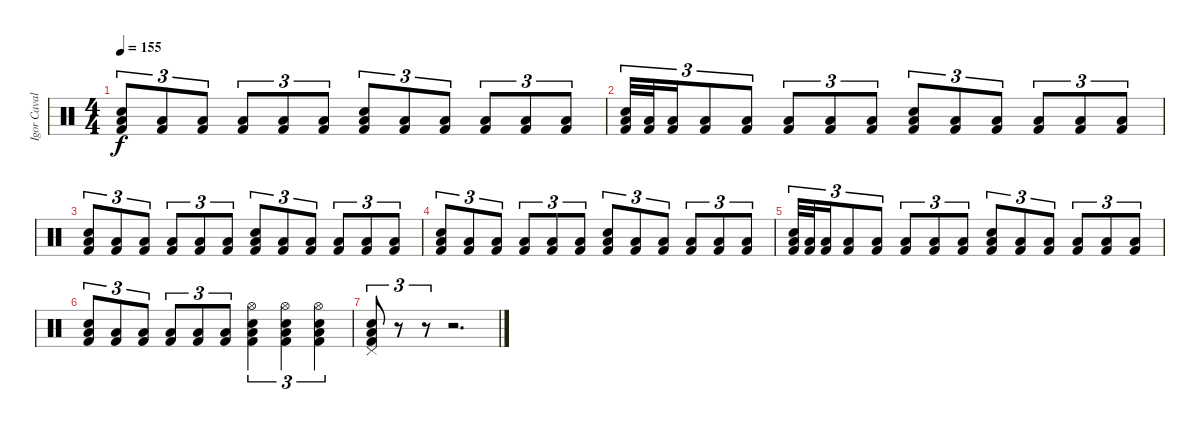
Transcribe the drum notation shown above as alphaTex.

\track ("Igor Cavalera - Drums" "Igor Caval") {instrument percussion}
\staff {score}
\articulation defaults
\ts (4 4)
\tempo 155
\clef neutral
\ks c
("Snare (hit) 2" "Low Floor Tom (hit)" "Kick (hit) 2").8{tu (3 2) dy f} ("Low Floor Tom (hit)" "Kick (hit) 2").8{tu (3 2)} ("Low Floor Tom (hit)" "Kick (hit) 2").8{tu (3 2)} ("Low Floor Tom (hit)" "Kick (hit) 2").8{tu (3 2)} ("Low Floor Tom (hit)" "Kick (hit) 2").8{tu (3 2)} ("Low Floor Tom (hit)" "Kick (hit) 2").8{tu (3 2)} ("Electric Snare (hit)" "Low Floor Tom (hit)" "Kick (hit) 2").8{tu (3 2)} ("Low Floor Tom (hit)" "Kick (hit) 2").8{tu (3 2)} ("Low Floor Tom (hit)" "Kick (hit) 2").8{tu (3 2)} ("Low Floor Tom (hit)" "Kick (hit) 2").8{tu (3 2)} ("Low Floor Tom (hit)" "Kick (hit) 2").8{tu (3 2)} ("Low Floor Tom (hit)" "Kick (hit) 2").8{tu (3 2)} |
("Snare (hit) 2" "Low Floor Tom (hit)" "Kick (hit) 2").32{tu (3 2)} ("Low Floor Tom (hit)" "Kick (hit) 2").32{tu (3 2)} ("Low Floor Tom (hit)" "Kick (hit) 2").16{tu (3 2)} ("Low Floor Tom (hit)" "Kick (hit) 2").8{tu (3 2)} ("Low Floor Tom (hit)" "Kick (hit) 2").8{tu (3 2)} ("Low Floor Tom (hit)" "Kick (hit) 2").8{tu (3 2)} ("Low Floor Tom (hit)" "Kick (hit) 2").8{tu (3 2)} ("Low Floor Tom (hit)" "Kick (hit) 2").8{tu (3 2)} ("Electric Snare (hit)" "Low Floor Tom (hit)" "Kick (hit) 2").8{tu (3 2)} ("Low Floor Tom (hit)" "Kick (hit) 2").8{tu (3 2)} ("Low Floor Tom (hit)" "Kick (hit) 2").8{tu (3 2)} ("Low Floor Tom (hit)" "Kick (hit) 2").8{tu (3 2)} ("Low Floor Tom (hit)" "Kick (hit) 2").8{tu (3 2)} ("Low Floor Tom (hit)" "Kick (hit) 2").8{tu (3 2)} |
("Snare (hit) 2" "Low Floor Tom (hit)" "Kick (hit) 2").8{tu (3 2)} ("Low Floor Tom (hit)" "Kick (hit) 2").8{tu (3 2)} ("Low Floor Tom (hit)" "Kick (hit) 2").8{tu (3 2)} ("Low Floor Tom (hit)" "Kick (hit) 2").8{tu (3 2)} ("Low Floor Tom (hit)" "Kick (hit) 2").8{tu (3 2)} ("Low Floor Tom (hit)" "Kick (hit) 2").8{tu (3 2)} ("Electric Snare (hit)" "Low Floor Tom (hit)" "Kick (hit) 2").8{tu (3 2)} ("Low Floor Tom (hit)" "Kick (hit) 2").8{tu (3 2)} ("Low Floor Tom (hit)" "Kick (hit) 2").8{tu (3 2)} ("Low Floor Tom (hit)" "Kick (hit) 2").8{tu (3 2)} ("Low Floor Tom (hit)" "Kick (hit) 2").8{tu (3 2)} ("Low Floor Tom (hit)" "Kick (hit) 2").8{tu (3 2)} |
("Snare (hit) 2" "Low Floor Tom (hit)" "Kick (hit) 2").8{tu (3 2)} ("Low Floor Tom (hit)" "Kick (hit) 2").8{tu (3 2)} ("Low Floor Tom (hit)" "Kick (hit) 2").8{tu (3 2)} ("Low Floor Tom (hit)" "Kick (hit) 2").8{tu (3 2)} ("Low Floor Tom (hit)" "Kick (hit) 2").8{tu (3 2)} ("Low Floor Tom (hit)" "Kick (hit) 2").8{tu (3 2)} ("Electric Snare (hit)" "Low Floor Tom (hit)" "Kick (hit) 2").8{tu (3 2)} ("Low Floor Tom (hit)" "Kick (hit) 2").8{tu (3 2)} ("Low Floor Tom (hit)" "Kick (hit) 2").8{tu (3 2)} ("Low Floor Tom (hit)" "Kick (hit) 2").8{tu (3 2)} ("Low Floor Tom (hit)" "Kick (hit) 2").8{tu (3 2)} ("Low Floor Tom (hit)" "Kick (hit) 2").8{tu (3 2)} |
("Snare (hit) 2" "Low Floor Tom (hit)" "Kick (hit) 2").32{tu (3 2)} ("Low Floor Tom (hit)" "Kick (hit) 2").32{tu (3 2)} ("Low Floor Tom (hit)" "Kick (hit) 2").16{tu (3 2)} ("Low Floor Tom (hit)" "Kick (hit) 2").8{tu (3 2)} ("Low Floor Tom (hit)" "Kick (hit) 2").8{tu (3 2)} ("Low Floor Tom (hit)" "Kick (hit) 2").8{tu (3 2)} ("Low Floor Tom (hit)" "Kick (hit) 2").8{tu (3 2)} ("Low Floor Tom (hit)" "Kick (hit) 2").8{tu (3 2)} ("Electric Snare (hit)" "Low Floor Tom (hit)" "Kick (hit) 2").8{tu (3 2)} ("Low Floor Tom (hit)" "Kick (hit) 2").8{tu (3 2)} ("Low Floor Tom (hit)" "Kick (hit) 2").8{tu (3 2)} ("Low Floor Tom (hit)" "Kick (hit) 2").8{tu (3 2)} ("Low Floor Tom (hit)" "Kick (hit) 2").8{tu (3 2)} ("Low Floor Tom (hit)" "Kick (hit) 2").8{tu (3 2)} |
("Snare (hit) 2" "Low Floor Tom (hit)" "Kick (hit) 2").8{tu (3 2)} ("Low Floor Tom (hit)" "Kick (hit) 2").8{tu (3 2)} ("Low Floor Tom (hit)" "Kick (hit) 2").8{tu (3 2)} ("Low Floor Tom (hit)" "Kick (hit) 2").8{tu (3 2)} ("Low Floor Tom (hit)" "Kick (hit) 2").8{tu (3 2)} ("Low Floor Tom (hit)" "Kick (hit) 2").8{tu (3 2)} ("Hi-Hat (open)" "Electric Snare (hit)" "Low Floor Tom (hit)" "Kick (hit) 2").4{tu (3 2)} ("Hi-Hat (open)" "Electric Snare (hit)" "Low Floor Tom (hit)" "Kick (hit) 2").4{tu (3 2)} ("Hi-Hat (open)" "Electric Snare (hit)" "Low Floor Tom (hit)" "Kick (hit) 2").4{tu (3 2)} |
("Pedal Hi-Hat (hit)" "Electric Snare (hit)" "Low Floor Tom (hit)" "Kick (hit) 2").8{tu (3 2)} r.8{tu (3 2)} r.8{tu (3 2)} r.2{d}
